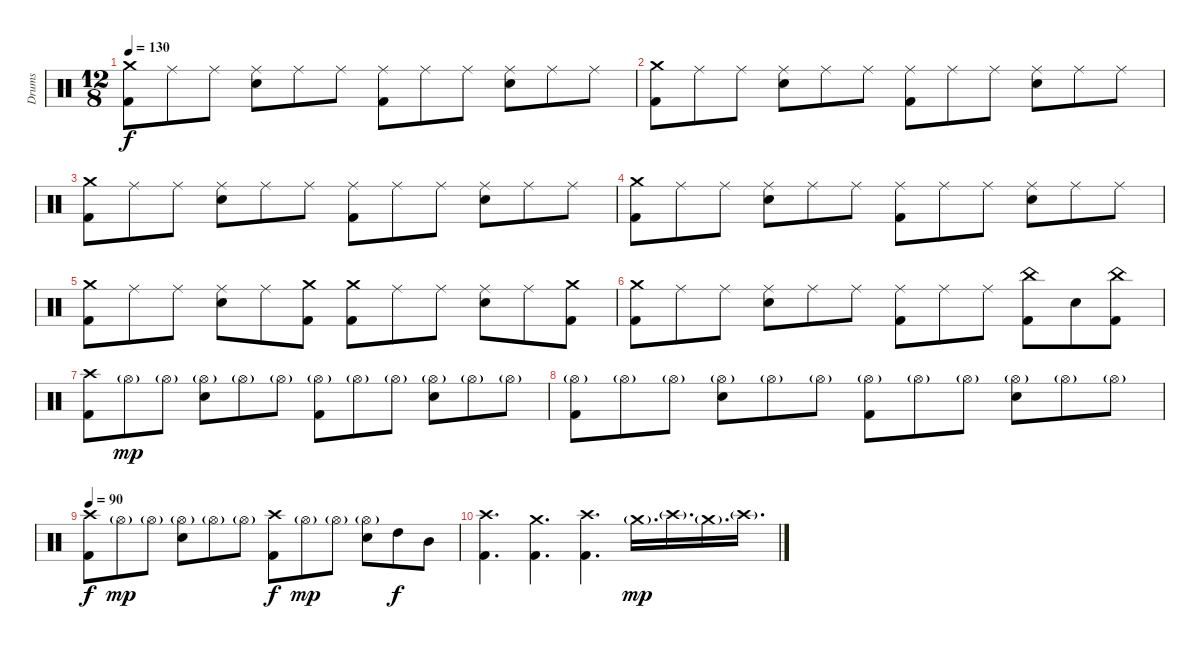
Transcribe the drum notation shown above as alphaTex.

\track ("Drums" "Drums") {instrument percussion}
\staff {score}
\articulation defaults
\ts (12 8)
\tempo 130
\clef neutral
\ks c
("Crash medium (hit)" "Kick (hit) 2").8{dy f} "Ride (middle)".8 "Ride (middle)".8 ("Ride (middle)" "Electric Snare (hit)").8 "Ride (middle)".8 "Ride (middle)".8 ("Ride (middle)" "Kick (hit) 2").8 "Ride (middle)".8 "Ride (middle)".8 ("Ride (middle)" "Electric Snare (hit)").8 "Ride (middle)".8 "Ride (middle)".8 |
("Crash medium (hit)" "Kick (hit) 2").8 "Ride (middle)".8 "Ride (middle)".8 ("Ride (middle)" "Electric Snare (hit)").8 "Ride (middle)".8 "Ride (middle)".8 ("Ride (middle)" "Kick (hit) 2").8 "Ride (middle)".8 "Ride (middle)".8 ("Ride (middle)" "Electric Snare (hit)").8 "Ride (middle)".8 "Ride (middle)".8 |
("Crash medium (hit)" "Kick (hit) 2").8 "Ride (middle)".8 "Ride (middle)".8 ("Ride (middle)" "Electric Snare (hit)").8 "Ride (middle)".8 "Ride (middle)".8 ("Ride (middle)" "Kick (hit) 2").8 "Ride (middle)".8 "Ride (middle)".8 ("Ride (middle)" "Electric Snare (hit)").8 "Ride (middle)".8 "Ride (middle)".8 |
("Crash medium (hit)" "Kick (hit) 2").8 "Ride (middle)".8 "Ride (middle)".8 ("Ride (middle)" "Electric Snare (hit)").8 "Ride (middle)".8 "Ride (middle)".8 ("Ride (middle)" "Kick (hit) 2").8 "Ride (middle)".8 "Ride (middle)".8 ("Ride (middle)" "Electric Snare (hit)").8 "Ride (middle)".8 "Ride (middle)".8 |
("Crash medium (hit)" "Kick (hit) 2").8 "Ride (middle)".8 "Ride (middle)".8 ("Ride (middle)" "Electric Snare (hit)").8 "Ride (middle)".8 ("Crash medium (hit)" "Kick (hit) 2").8 ("Crash medium (hit)" "Kick (hit) 2").8 "Ride (middle)".8 "Ride (middle)".8 ("Ride (middle)" "Electric Snare (hit)").8 "Ride (middle)".8 ("Crash medium (hit)" "Kick (hit) 2").8 |
("Crash medium (hit)" "Kick (hit) 2").8 "Ride (middle)".8 "Ride (middle)".8 ("Ride (middle)" "Electric Snare (hit)").8 "Ride (middle)".8 "Ride (middle)".8 ("Ride (middle)" "Kick (hit) 2").8 "Ride (middle)".8 "Ride (middle)".8 ("China (hit)" "Kick (hit) 2").8 "Electric Snare (hit)".8 ("China (hit)" "Kick (hit) 2").8 |
("Crash high (hit)" "Kick (hit) 2").8 "Hi-Hat (open)"{g}.8{dy mp} "Hi-Hat (open)"{g}.8 ("Hi-Hat (open)"{g} "Electric Snare (hit)").8 "Hi-Hat (open)"{g}.8 "Hi-Hat (open)"{g}.8 ("Hi-Hat (open)"{g} "Kick (hit) 2").8 "Hi-Hat (open)"{g}.8 "Hi-Hat (open)"{g}.8 ("Hi-Hat (open)"{g} "Electric Snare (hit)").8 "Hi-Hat (open)"{g}.8 "Hi-Hat (open)"{g}.8 |
("Hi-Hat (open)"{g} "Kick (hit) 2").8 "Hi-Hat (open)"{g}.8 "Hi-Hat (open)"{g}.8 ("Hi-Hat (open)"{g} "Electric Snare (hit)").8 "Hi-Hat (open)"{g}.8 "Hi-Hat (open)"{g}.8 ("Hi-Hat (open)"{g} "Kick (hit) 2").8 "Hi-Hat (open)"{g}.8 "Hi-Hat (open)"{g}.8 ("Hi-Hat (open)"{g} "Electric Snare (hit)").8 "Hi-Hat (open)"{g}.8 "Hi-Hat (open)"{g}.8 |
\tempo 90
("Crash high (hit)" "Kick (hit) 2").8{dy f} "Hi-Hat (open)"{g}.8{dy mp} "Hi-Hat (open)"{g}.8 ("Hi-Hat (open)"{g} "Electric Snare (hit)").8 "Hi-Hat (open)"{g}.8 "Hi-Hat (open)"{g}.8 ("Crash high (hit)" "Kick (hit) 2").8{dy f} "Hi-Hat (open)"{g}.8{dy mp} "Hi-Hat (open)"{g}.8 ("Hi-Hat (open)"{g} "Electric Snare (hit)").8 "High Tom (hit)".8{dy f} "Mid Tom (hit)".8 |
("Crash high (hit)" "Kick (hit) 2").4{d} ("Crash medium (hit)" "Kick (hit) 2").4{d} ("Crash high (hit)" "Kick (hit) 2").4{d} "Crash medium (hit)"{g}.16{d dy mp volume 5} "Crash high (hit)"{g}.16{d} "Crash medium (hit)"{g}.16{d} "Crash high (hit)"{g}.16{d}
